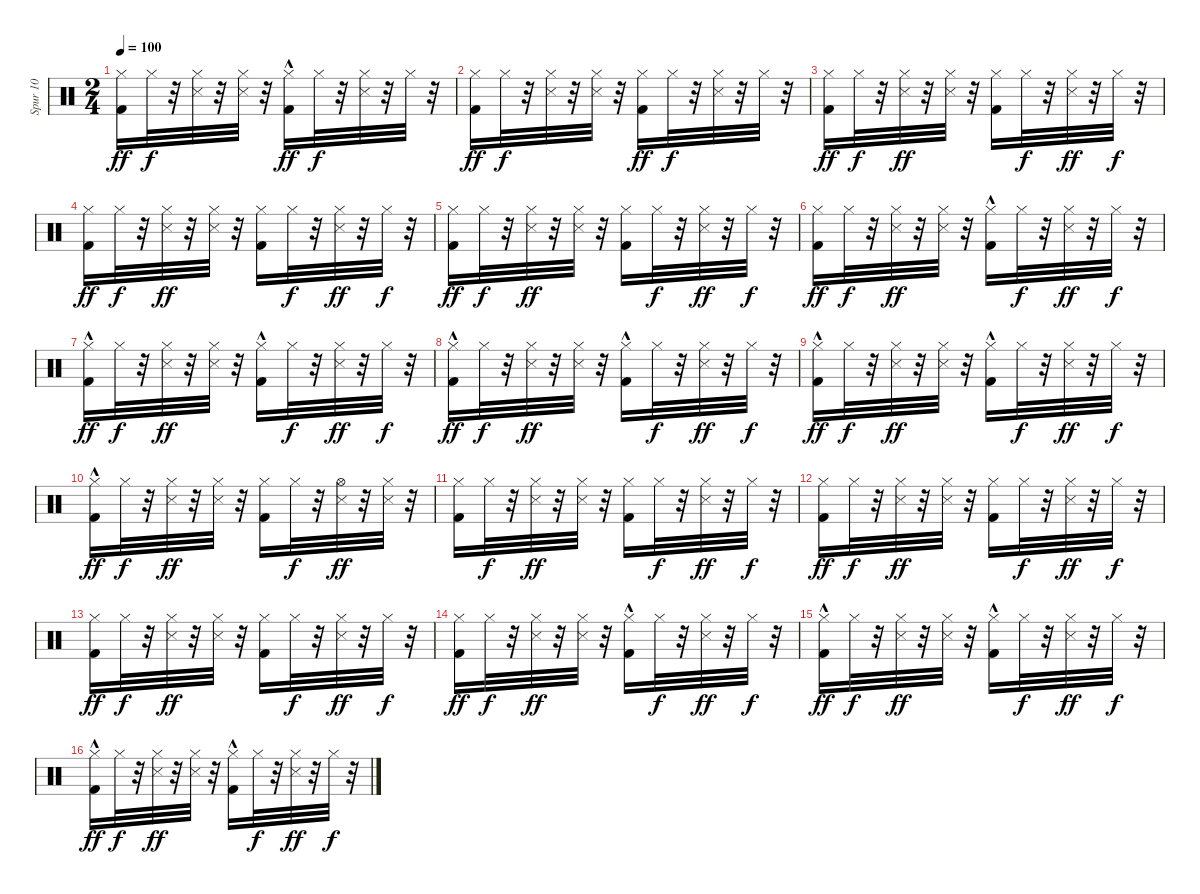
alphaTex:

\track ("Spur 10" "Spur 10") {instrument percussion}
\staff {score}
\articulation defaults
\ts (2 4)
\tempo 100
\clef neutral
\ks c
("Kick (hit) 2" "Hi-Hat (closed)").16{dy ff volume 14} "Hi-Hat (closed)".32{dy f} r.32 ("Snare (side stick) 3" "Hi-Hat (closed)").32 r.32 ("Hi-Hat (closed)" "Snare (side stick) 3").32 r.32 ("Kick (hit) 2"{hac} "Hi-Hat (closed)").16{dy ff} "Hi-Hat (closed)".32{dy f} r.32 ("Hi-Hat (closed)" "Snare (side stick) 3").32 r.32 "Hi-Hat (closed)".32 r.32 |
("Hi-Hat (closed)" "Kick (hit) 2").16{dy ff} "Hi-Hat (closed)".32{dy f} r.32 ("Hi-Hat (closed)" "Snare (side stick) 3").32 r.32 ("Hi-Hat (closed)" "Snare (side stick) 3").32 r.32 ("Kick (hit) 2" "Hi-Hat (closed)").16{dy ff} "Hi-Hat (closed)".32{dy f} r.32 ("Hi-Hat (closed)" "Snare (side stick) 3").32 r.32 "Hi-Hat (closed)".32 r.32 |
("Hi-Hat (closed)" "Kick (hit) 2").16{dy ff volume 14} "Hi-Hat (closed)".32{dy f} r.32 ("Snare (side stick) 3" "Hi-Hat (closed)").32{dy ff} r.32 ("Snare (side stick) 3" "Hi-Hat (closed)").32 r.32 ("Kick (hit) 2" "Hi-Hat (closed)").16 "Hi-Hat (closed)".32{dy f} r.32 ("Snare (side stick) 3" "Hi-Hat (closed)").32{dy ff} r.32 "Hi-Hat (closed)".32{dy f} r.32 |
("Hi-Hat (closed)" "Kick (hit) 2").16{dy ff} "Hi-Hat (closed)".32{dy f} r.32 ("Hi-Hat (closed)" "Snare (side stick) 3").32{dy ff} r.32 ("Hi-Hat (closed)" "Snare (side stick) 3").32 r.32 ("Kick (hit) 2" "Hi-Hat (closed)").16 "Hi-Hat (closed)".32{dy f} r.32 ("Snare (side stick) 3" "Hi-Hat (closed)").32{dy ff} r.32 "Hi-Hat (closed)".32{dy f} r.32 |
("Kick (hit) 2" "Hi-Hat (closed)").16{dy ff} "Hi-Hat (closed)".32{dy f} r.32 ("Snare (side stick) 3" "Hi-Hat (closed)").32{dy ff} r.32 ("Hi-Hat (closed)" "Snare (side stick) 3").32 r.32 ("Kick (hit) 2" "Hi-Hat (closed)").16 "Hi-Hat (closed)".32{dy f} r.32 ("Snare (side stick) 3" "Hi-Hat (closed)").32{dy ff} r.32 "Hi-Hat (closed)".32{dy f} r.32 |
("Kick (hit) 2" "Hi-Hat (closed)").16{dy ff} "Hi-Hat (closed)".32{dy f} r.32 ("Hi-Hat (closed)" "Snare (side stick) 3").32{dy ff} r.32 ("Hi-Hat (closed)" "Snare (side stick) 3").32 r.32 ("Kick (hit) 2"{hac} "Hi-Hat (closed)").16 "Hi-Hat (closed)".32{dy f} r.32 ("Snare (side stick) 3" "Hi-Hat (closed)").32{dy ff} r.32 "Hi-Hat (closed)".32{dy f} r.32 |
("Kick (hit) 2"{hac} "Hi-Hat (closed)").16{dy ff} "Hi-Hat (closed)".32{dy f} r.32 ("Snare (side stick) 3" "Hi-Hat (closed)").32{dy ff} r.32 ("Snare (side stick) 3" "Hi-Hat (closed)").32 r.32 ("Kick (hit) 2"{hac} "Hi-Hat (closed)").16 "Hi-Hat (closed)".32{dy f} r.32 ("Snare (side stick) 3" "Hi-Hat (closed)").32{dy ff} r.32 "Hi-Hat (closed)".32{dy f} r.32 |
("Kick (hit) 2"{hac} "Hi-Hat (closed)").16{dy ff} "Hi-Hat (closed)".32{dy f} r.32 ("Snare (side stick) 3" "Hi-Hat (closed)").32{dy ff} r.32 ("Snare (side stick) 3" "Hi-Hat (closed)").32 r.32 ("Kick (hit) 2"{hac} "Hi-Hat (closed)").16 "Hi-Hat (closed)".32{dy f} r.32 ("Snare (side stick) 3" "Hi-Hat (closed)").32{dy ff} r.32 "Hi-Hat (closed)".32{dy f} r.32 |
("Kick (hit) 2"{hac} "Hi-Hat (closed)").16{dy ff} "Hi-Hat (closed)".32{dy f} r.32 ("Snare (side stick) 3" "Hi-Hat (closed)").32{dy ff} r.32 ("Snare (side stick) 3" "Hi-Hat (closed)").32 r.32 ("Hi-Hat (closed)" "Kick (hit) 2"{hac}).16 "Hi-Hat (closed)".32{dy f} r.32 ("Snare (side stick) 3" "Hi-Hat (closed)").32{dy ff} r.32 "Hi-Hat (closed)".32{dy f} r.32 |
("Hi-Hat (closed)" "Kick (hit) 2"{hac}).16{dy ff} "Hi-Hat (closed)".32{dy f} r.32 ("Snare (side stick) 3" "Hi-Hat (closed)").32{dy ff} r.32 ("Hi-Hat (closed)" "Snare (side stick) 3").32 r.32 ("Hi-Hat (closed)" "Kick (hit) 2").16 "Hi-Hat (closed)".32{dy f} r.32 ("Snare (side stick) 3" "Hi-Hat (open)").32{dy ff} r.32 ("Snare (side stick) 3" "Hi-Hat (closed)").32 r.32 |
("Hi-Hat (closed)" "Kick (hit) 2").16{volume 14} "Hi-Hat (closed)".32{dy f} r.32 ("Snare (side stick) 3" "Hi-Hat (closed)").32{dy ff} r.32 ("Snare (side stick) 3" "Hi-Hat (closed)").32 r.32 ("Kick (hit) 2" "Hi-Hat (closed)").16 "Hi-Hat (closed)".32{dy f} r.32 ("Snare (side stick) 3" "Hi-Hat (closed)").32{dy ff} r.32 "Hi-Hat (closed)".32{dy f} r.32 |
("Hi-Hat (closed)" "Kick (hit) 2").16{dy ff} "Hi-Hat (closed)".32{dy f} r.32 ("Hi-Hat (closed)" "Snare (side stick) 3").32{dy ff} r.32 ("Hi-Hat (closed)" "Snare (side stick) 3").32 r.32 ("Kick (hit) 2" "Hi-Hat (closed)").16 "Hi-Hat (closed)".32{dy f} r.32 ("Snare (side stick) 3" "Hi-Hat (closed)").32{dy ff} r.32 "Hi-Hat (closed)".32{dy f} r.32 |
("Kick (hit) 2" "Hi-Hat (closed)").16{dy ff} "Hi-Hat (closed)".32{dy f} r.32 ("Snare (side stick) 3" "Hi-Hat (closed)").32{dy ff} r.32 ("Hi-Hat (closed)" "Snare (side stick) 3").32 r.32 ("Kick (hit) 2" "Hi-Hat (closed)").16 "Hi-Hat (closed)".32{dy f} r.32 ("Snare (side stick) 3" "Hi-Hat (closed)").32{dy ff} r.32 "Hi-Hat (closed)".32{dy f} r.32 |
("Kick (hit) 2" "Hi-Hat (closed)").16{dy ff} "Hi-Hat (closed)".32{dy f} r.32 ("Hi-Hat (closed)" "Snare (side stick) 3").32{dy ff} r.32 ("Hi-Hat (closed)" "Snare (side stick) 3").32 r.32 ("Kick (hit) 2"{hac} "Hi-Hat (closed)").16 "Hi-Hat (closed)".32{dy f} r.32 ("Snare (side stick) 3" "Hi-Hat (closed)").32{dy ff} r.32 "Hi-Hat (closed)".32{dy f} r.32 |
("Kick (hit) 2"{hac} "Hi-Hat (closed)").16{dy ff} "Hi-Hat (closed)".32{dy f} r.32 ("Snare (side stick) 3" "Hi-Hat (closed)").32{dy ff} r.32 ("Snare (side stick) 3" "Hi-Hat (closed)").32 r.32 ("Kick (hit) 2"{hac} "Hi-Hat (closed)").16 "Hi-Hat (closed)".32{dy f} r.32 ("Snare (side stick) 3" "Hi-Hat (closed)").32{dy ff} r.32 "Hi-Hat (closed)".32{dy f} r.32 |
("Kick (hit) 2"{hac} "Hi-Hat (closed)").16{dy ff} "Hi-Hat (closed)".32{dy f} r.32 ("Snare (side stick) 3" "Hi-Hat (closed)").32{dy ff} r.32 ("Snare (side stick) 3" "Hi-Hat (closed)").32 r.32 ("Kick (hit) 2"{hac} "Hi-Hat (closed)").16 "Hi-Hat (closed)".32{dy f} r.32 ("Snare (side stick) 3" "Hi-Hat (closed)").32{dy ff} r.32 "Hi-Hat (closed)".32{dy f} r.32
